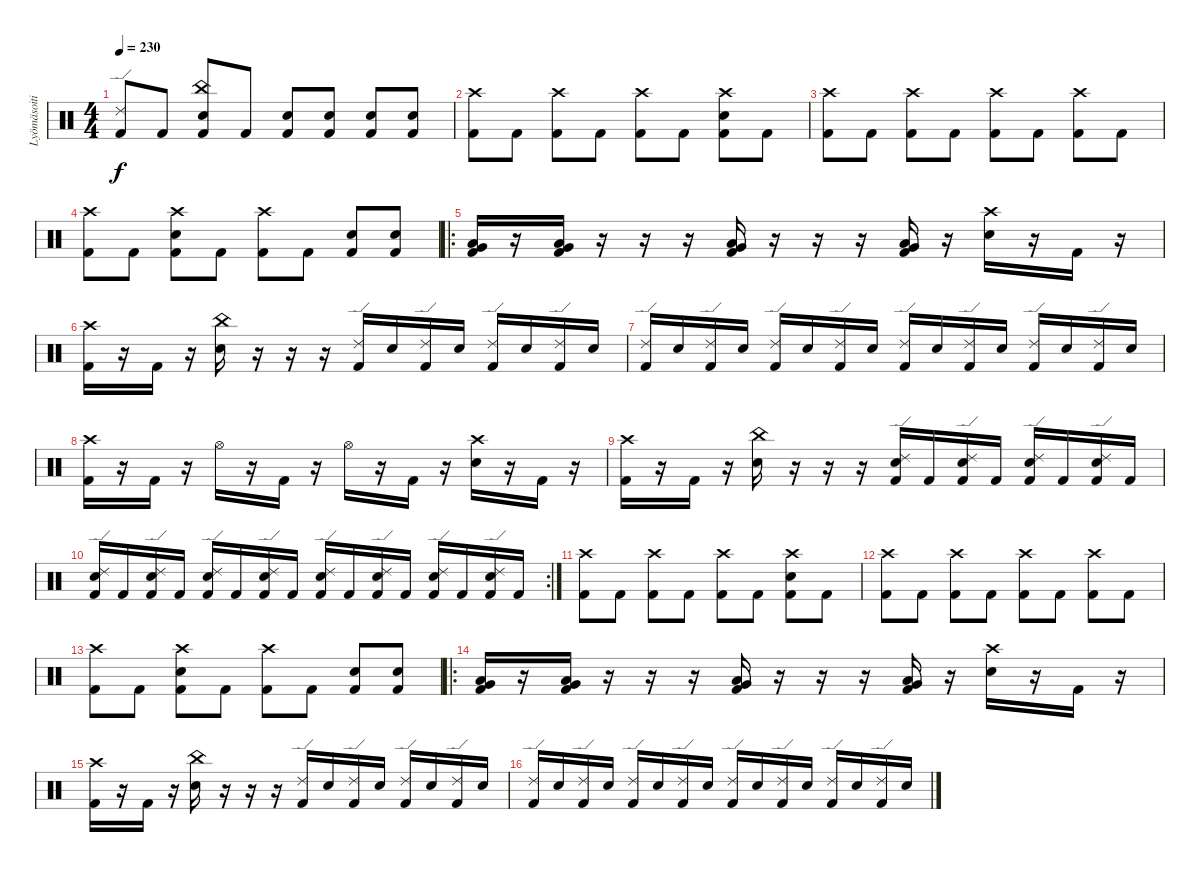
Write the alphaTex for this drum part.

\track ("Lyömäsoitin" "Lyömäsoiti") {instrument percussion}
\staff {score}
\articulation defaults
\ts (4 4)
\tempo 230
\clef neutral
\ks c
("Ride (edge) 2" "Kick (hit) 2").8{dy f} "Kick (hit) 2".8 ("China (hit)" "Snare (hit) 2" "Kick (hit) 2").8 "Kick (hit) 2".8 ("Snare (hit) 2" "Kick (hit) 2").8 ("Snare (hit) 2" "Kick (hit) 2").8 ("Snare (hit) 2" "Kick (hit) 2").8 ("Snare (hit) 2" "Kick (hit) 2").8 |
("Crash high (hit)" "Kick (hit) 2").8 "Kick (hit) 2".8 ("Crash high (hit)" "Kick (hit) 2").8 "Kick (hit) 2".8 ("Crash high (hit)" "Kick (hit) 2").8 "Kick (hit) 2".8 ("Crash high (hit)" "Snare (hit) 2" "Kick (hit) 2").8 "Kick (hit) 2".8 |
("Crash high (hit)" "Kick (hit) 2").8 "Kick (hit) 2".8 ("Crash high (hit)" "Kick (hit) 2").8 "Kick (hit) 2".8 ("Crash high (hit)" "Kick (hit) 2").8 "Kick (hit) 2".8 ("Crash high (hit)" "Kick (hit) 2").8 "Kick (hit) 2".8 |
("Crash high (hit)" "Kick (hit) 2").8 "Kick (hit) 2".8 ("Crash high (hit)" "Snare (hit) 2" "Kick (hit) 2").8 "Kick (hit) 2".8 ("Crash high (hit)" "Kick (hit) 2").8 "Kick (hit) 2".8 ("Snare (hit) 2" "Kick (hit) 2").8 ("Snare (hit) 2" "Kick (hit) 2").8 |
\ro
("Very Low Tom (hit)" "Low Floor Tom (hit)" "Kick (hit) 2").16 r.16 ("Very Low Tom (hit)" "Low Floor Tom (hit)" "Kick (hit) 2").16 r.16 r.16 r.16 ("Very Low Tom (hit)" "Low Floor Tom (hit)" "Kick (hit) 2").16 r.16 r.16 r.16 ("Very Low Tom (hit)" "Low Floor Tom (hit)" "Kick (hit) 2").16 r.16 ("Crash high (hit)" "Snare (hit) 2").16 r.16 "Kick (hit) 2".16 r.16 |
("Crash high (hit)" "Kick (hit) 2").16 r.16 "Kick (hit) 2".16 r.16 ("China (hit)" "Snare (hit) 2").16 r.16 r.16 r.16 ("Ride (edge) 2" "Kick (hit) 2").16 "Snare (hit) 2".16 ("Ride (edge) 2" "Kick (hit) 2").16 "Snare (hit) 2".16 ("Ride (edge) 2" "Kick (hit) 2").16 "Snare (hit) 2".16 ("Ride (edge) 2" "Kick (hit) 2").16 "Snare (hit) 2".16 |
("Ride (edge) 2" "Kick (hit) 2").16 "Snare (hit) 2".16 ("Ride (edge) 2" "Kick (hit) 2").16 "Snare (hit) 2".16 ("Ride (edge) 2" "Kick (hit) 2").16 "Snare (hit) 2".16 ("Ride (edge) 2" "Kick (hit) 2").16 "Snare (hit) 2".16 ("Ride (edge) 2" "Kick (hit) 2").16 "Snare (hit) 2".16 ("Ride (edge) 2" "Kick (hit) 2").16 "Snare (hit) 2".16 ("Ride (edge) 2" "Kick (hit) 2").16 "Snare (hit) 2".16 ("Ride (edge) 2" "Kick (hit) 2").16 "Snare (hit) 2".16 |
("Crash high (hit)" "Kick (hit) 2").16 r.16 "Kick (hit) 2".16 r.16 "Hi-Hat (open)".16 r.16 "Kick (hit) 2".16 r.16 "Hi-Hat (open)".16 r.16 "Kick (hit) 2".16 r.16 ("Crash high (hit)" "Snare (hit) 2").16 r.16 "Kick (hit) 2".16 r.16 |
("Crash high (hit)" "Kick (hit) 2").16 r.16 "Kick (hit) 2".16 r.16 ("China (hit)" "Snare (hit) 2").16 r.16 r.16 r.16 ("Ride (edge) 2" "Snare (hit) 2" "Kick (hit) 2").16 "Kick (hit) 2".16 ("Ride (edge) 2" "Snare (hit) 2" "Kick (hit) 2").16 "Kick (hit) 2".16 ("Ride (edge) 2" "Snare (hit) 2" "Kick (hit) 2").16 "Kick (hit) 2".16 ("Ride (edge) 2" "Snare (hit) 2" "Kick (hit) 2").16 "Kick (hit) 2".16 |
\rc 2
("Ride (edge) 2" "Snare (hit) 2" "Kick (hit) 2").16 "Kick (hit) 2".16 ("Ride (edge) 2" "Snare (hit) 2" "Kick (hit) 2").16 "Kick (hit) 2".16 ("Ride (edge) 2" "Snare (hit) 2" "Kick (hit) 2").16 "Kick (hit) 2".16 ("Ride (edge) 2" "Snare (hit) 2" "Kick (hit) 2").16 "Kick (hit) 2".16 ("Ride (edge) 2" "Snare (hit) 2" "Kick (hit) 2").16 "Kick (hit) 2".16 ("Ride (edge) 2" "Snare (hit) 2" "Kick (hit) 2").16 "Kick (hit) 2".16 ("Ride (edge) 2" "Snare (hit) 2" "Kick (hit) 2").16 "Kick (hit) 2".16 ("Ride (edge) 2" "Snare (hit) 2" "Kick (hit) 2").16 "Kick (hit) 2".16 |
("Crash high (hit)" "Kick (hit) 2").8 "Kick (hit) 2".8 ("Crash high (hit)" "Kick (hit) 2").8 "Kick (hit) 2".8 ("Crash high (hit)" "Kick (hit) 2").8 "Kick (hit) 2".8 ("Crash high (hit)" "Snare (hit) 2" "Kick (hit) 2").8 "Kick (hit) 2".8 |
("Crash high (hit)" "Kick (hit) 2").8 "Kick (hit) 2".8 ("Crash high (hit)" "Kick (hit) 2").8 "Kick (hit) 2".8 ("Crash high (hit)" "Kick (hit) 2").8 "Kick (hit) 2".8 ("Crash high (hit)" "Kick (hit) 2").8 "Kick (hit) 2".8 |
("Crash high (hit)" "Kick (hit) 2").8 "Kick (hit) 2".8 ("Crash high (hit)" "Snare (hit) 2" "Kick (hit) 2").8 "Kick (hit) 2".8 ("Crash high (hit)" "Kick (hit) 2").8 "Kick (hit) 2".8 ("Snare (hit) 2" "Kick (hit) 2").8 ("Snare (hit) 2" "Kick (hit) 2").8 |
\ro
("Very Low Tom (hit)" "Low Floor Tom (hit)" "Kick (hit) 2").16 r.16 ("Very Low Tom (hit)" "Low Floor Tom (hit)" "Kick (hit) 2").16 r.16 r.16 r.16 ("Very Low Tom (hit)" "Low Floor Tom (hit)" "Kick (hit) 2").16 r.16 r.16 r.16 ("Very Low Tom (hit)" "Low Floor Tom (hit)" "Kick (hit) 2").16 r.16 ("Crash high (hit)" "Snare (hit) 2").16 r.16 "Kick (hit) 2".16 r.16 |
("Crash high (hit)" "Kick (hit) 2").16 r.16 "Kick (hit) 2".16 r.16 ("China (hit)" "Snare (hit) 2").16 r.16 r.16 r.16 ("Ride (edge) 2" "Kick (hit) 2").16 "Snare (hit) 2".16 ("Ride (edge) 2" "Kick (hit) 2").16 "Snare (hit) 2".16 ("Ride (edge) 2" "Kick (hit) 2").16 "Snare (hit) 2".16 ("Ride (edge) 2" "Kick (hit) 2").16 "Snare (hit) 2".16 |
("Ride (edge) 2" "Kick (hit) 2").16 "Snare (hit) 2".16 ("Ride (edge) 2" "Kick (hit) 2").16 "Snare (hit) 2".16 ("Ride (edge) 2" "Kick (hit) 2").16 "Snare (hit) 2".16 ("Ride (edge) 2" "Kick (hit) 2").16 "Snare (hit) 2".16 ("Ride (edge) 2" "Kick (hit) 2").16 "Snare (hit) 2".16 ("Ride (edge) 2" "Kick (hit) 2").16 "Snare (hit) 2".16 ("Ride (edge) 2" "Kick (hit) 2").16 "Snare (hit) 2".16 ("Ride (edge) 2" "Kick (hit) 2").16 "Snare (hit) 2".16
